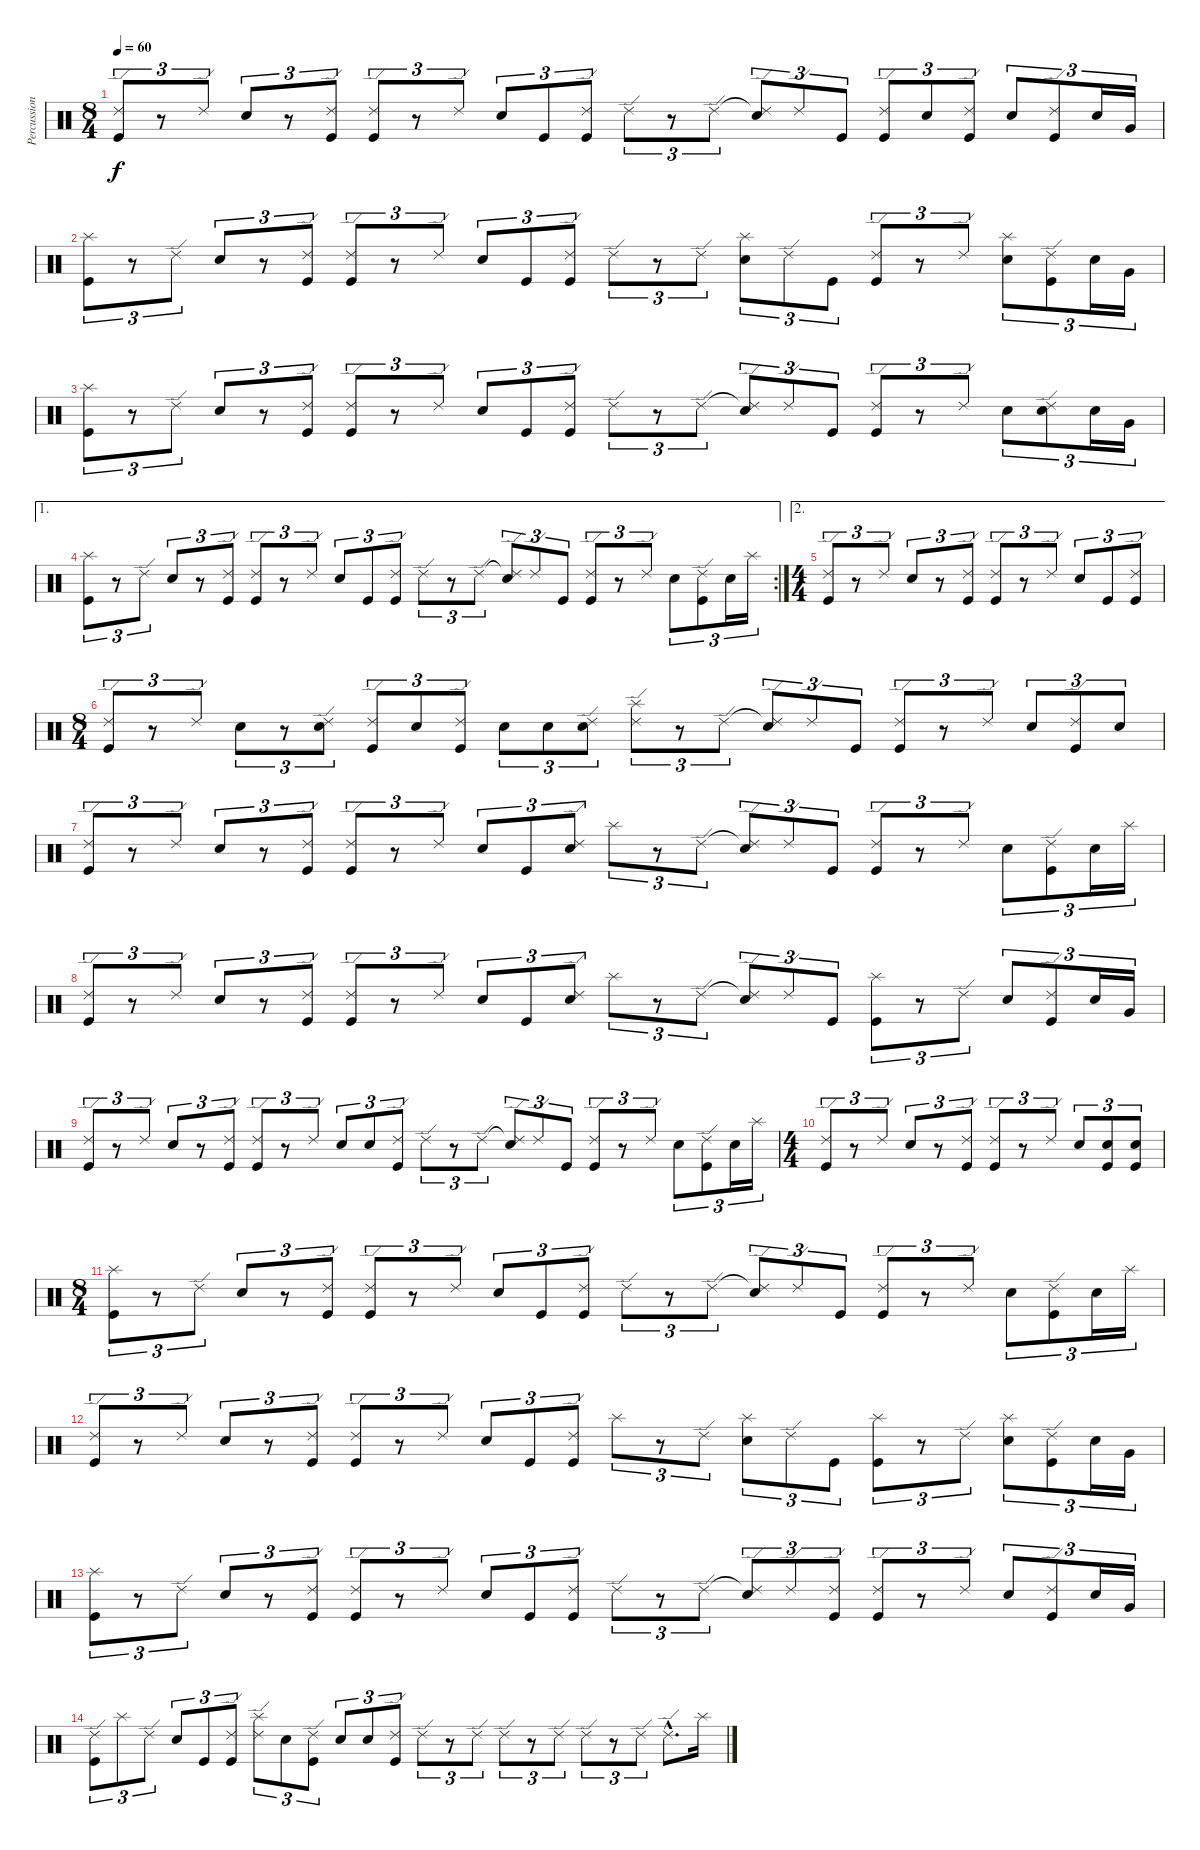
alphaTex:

\track ("Percussion" "Percussion") {instrument percussion}
\staff {score}
\articulation defaults
\ts (8 4)
\tempo 60
\clef neutral
\ks c
("Ride (edge) 2" "Kick (hit)").8{tu (3 2) dy f} r.8{tu (3 2)} "Ride (edge) 2".8{tu (3 2)} "Electric Snare (hit)".8{tu (3 2)} r.8{tu (3 2)} ("Ride (edge) 2" "Kick (hit)").8{tu (3 2)} ("Ride (edge) 2" "Kick (hit)").8{tu (3 2)} r.8{tu (3 2)} "Ride (edge) 2".8{tu (3 2)} "Electric Snare (hit)".8{tu (3 2)} "Kick (hit)".8{tu (3 2)} ("Ride (edge) 2" "Kick (hit)").8{tu (3 2)} "Ride (edge) 2".8{tu (3 2)} r.8{tu (3 2)} "Ride (edge) 2".8{tu (3 2)} ("Ride (edge) 2"{t} "Electric Snare (hit)").8{tu (3 2)} "Ride (edge) 2".8{tu (3 2)} "Kick (hit)".8{tu (3 2)} ("Ride (edge) 2" "Kick (hit)").8{tu (3 2)} "Electric Snare (hit)".8{tu (3 2)} ("Ride (edge) 2" "Kick (hit)").8{tu (3 2)} "Electric Snare (hit)".8{tu (3 2)} ("Ride (edge) 2" "Kick (hit)").8{tu (3 2)} "Electric Snare (hit)".16{tu (3 2)} "Very Low Tom (hit)".16{tu (3 2)} |
("Splash (hit)" "Kick (hit)").8{tu (3 2)} r.8{tu (3 2)} "Ride (edge) 2".8{tu (3 2)} "Electric Snare (hit)".8{tu (3 2)} r.8{tu (3 2)} ("Ride (edge) 2" "Kick (hit)").8{tu (3 2)} ("Ride (edge) 2" "Kick (hit)").8{tu (3 2)} r.8{tu (3 2)} "Ride (edge) 2".8{tu (3 2)} "Electric Snare (hit)".8{tu (3 2)} "Kick (hit)".8{tu (3 2)} ("Ride (edge) 2" "Kick (hit)").8{tu (3 2)} "Ride (edge) 2".8{tu (3 2)} r.8{tu (3 2)} "Ride (edge) 2".8{tu (3 2)} ("Splash (hit)" "Electric Snare (hit)").8{tu (3 2)} "Ride (edge) 2".8{tu (3 2)} "Kick (hit)".8{tu (3 2)} ("Ride (edge) 2" "Kick (hit)").8{tu (3 2)} r.8{tu (3 2)} "Ride (edge) 2".8{tu (3 2)} ("Splash (hit)" "Electric Snare (hit)").8{tu (3 2)} ("Ride (edge) 2" "Kick (hit)").8{tu (3 2)} "Electric Snare (hit)".16{tu (3 2)} "Very Low Tom (hit)".16{tu (3 2)} |
("Splash (hit)" "Kick (hit)").8{tu (3 2)} r.8{tu (3 2)} "Ride (edge) 2".8{tu (3 2)} "Electric Snare (hit)".8{tu (3 2)} r.8{tu (3 2)} ("Ride (edge) 2" "Kick (hit)").8{tu (3 2)} ("Ride (edge) 2" "Kick (hit)").8{tu (3 2)} r.8{tu (3 2)} "Ride (edge) 2".8{tu (3 2)} "Electric Snare (hit)".8{tu (3 2)} "Kick (hit)".8{tu (3 2)} ("Ride (edge) 2" "Kick (hit)").8{tu (3 2)} "Ride (edge) 2".8{tu (3 2)} r.8{tu (3 2)} "Ride (edge) 2".8{tu (3 2)} ("Ride (edge) 2"{t} "Electric Snare (hit)").8{tu (3 2)} "Ride (edge) 2".8{tu (3 2)} "Kick (hit)".8{tu (3 2)} ("Ride (edge) 2" "Kick (hit)").8{tu (3 2)} r.8{tu (3 2)} "Ride (edge) 2".8{tu (3 2)} "Electric Snare (hit)".8{tu (3 2)} ("Ride (edge) 2" "Electric Snare (hit)").8{tu (3 2)} "Electric Snare (hit)".16{tu (3 2)} "Very Low Tom (hit)".16{tu (3 2)} |
\ae 1
\rc 2
("Splash (hit)" "Kick (hit)").8{tu (3 2)} r.8{tu (3 2)} "Ride (edge) 2".8{tu (3 2)} "Electric Snare (hit)".8{tu (3 2)} r.8{tu (3 2)} ("Ride (edge) 2" "Kick (hit)").8{tu (3 2)} ("Ride (edge) 2" "Kick (hit)").8{tu (3 2)} r.8{tu (3 2)} "Ride (edge) 2".8{tu (3 2)} "Electric Snare (hit)".8{tu (3 2)} "Kick (hit)".8{tu (3 2)} ("Ride (edge) 2" "Kick (hit)").8{tu (3 2)} "Ride (edge) 2".8{tu (3 2)} r.8{tu (3 2)} "Ride (edge) 2".8{tu (3 2)} ("Ride (edge) 2"{t} "Electric Snare (hit)").8{tu (3 2)} "Ride (edge) 2".8{tu (3 2)} "Kick (hit)".8{tu (3 2)} ("Ride (edge) 2" "Kick (hit)").8{tu (3 2)} r.8{tu (3 2)} "Ride (edge) 2".8{tu (3 2)} "Electric Snare (hit)".8{tu (3 2)} ("Ride (edge) 2" "Kick (hit)").8{tu (3 2)} "Electric Snare (hit)".16{tu (3 2)} "Splash (hit)".16{tu (3 2)} |
\ae 2
\ts (4 4)
("Ride (edge) 2" "Kick (hit)").8{tu (3 2)} r.8{tu (3 2)} "Ride (edge) 2".8{tu (3 2)} "Electric Snare (hit)".8{tu (3 2)} r.8{tu (3 2)} ("Ride (edge) 2" "Kick (hit)").8{tu (3 2)} ("Ride (edge) 2" "Kick (hit)").8{tu (3 2)} r.8{tu (3 2)} "Ride (edge) 2".8{tu (3 2)} "Electric Snare (hit)".8{tu (3 2)} "Kick (hit)".8{tu (3 2)} ("Ride (edge) 2" "Kick (hit)").8{tu (3 2)} |
\ts (8 4)
("Ride (edge) 2" "Kick (hit)").8{tu (3 2)} r.8{tu (3 2)} "Ride (edge) 2".8{tu (3 2)} "Electric Snare (hit)".8{tu (3 2)} r.8{tu (3 2)} ("Ride (edge) 2" "Electric Snare (hit)").8{tu (3 2)} ("Ride (edge) 2" "Kick (hit)").8{tu (3 2)} "Electric Snare (hit)".8{tu (3 2)} ("Ride (edge) 2" "Kick (hit)").8{tu (3 2)} "Electric Snare (hit)".8{tu (3 2)} "Electric Snare (hit)".8{tu (3 2)} ("Ride (edge) 2" "Electric Snare (hit)").8{tu (3 2)} ("Splash (hit)" "Ride (edge) 2").8{tu (3 2)} r.8{tu (3 2)} "Ride (edge) 2".8{tu (3 2)} ("Ride (edge) 2"{t} "Electric Snare (hit)").8{tu (3 2)} "Ride (edge) 2".8{tu (3 2)} "Kick (hit)".8{tu (3 2)} ("Ride (edge) 2" "Kick (hit)").8{tu (3 2)} r.8{tu (3 2)} "Ride (edge) 2".8{tu (3 2)} "Electric Snare (hit)".8{tu (3 2)} ("Ride (edge) 2" "Kick (hit)").8{tu (3 2)} "Electric Snare (hit)".8{tu (3 2)} |
("Ride (edge) 2" "Kick (hit)").8{tu (3 2)} r.8{tu (3 2)} "Ride (edge) 2".8{tu (3 2)} "Electric Snare (hit)".8{tu (3 2)} r.8{tu (3 2)} ("Ride (edge) 2" "Kick (hit)").8{tu (3 2)} ("Ride (edge) 2" "Kick (hit)").8{tu (3 2)} r.8{tu (3 2)} "Ride (edge) 2".8{tu (3 2)} "Electric Snare (hit)".8{tu (3 2)} "Kick (hit)".8{tu (3 2)} ("Ride (edge) 2" "Electric Snare (hit)").8{tu (3 2)} "Splash (hit)".8{tu (3 2)} r.8{tu (3 2)} "Ride (edge) 2".8{tu (3 2)} ("Ride (edge) 2"{t} "Electric Snare (hit)").8{tu (3 2)} "Ride (edge) 2".8{tu (3 2)} "Kick (hit)".8{tu (3 2)} ("Ride (edge) 2" "Kick (hit)").8{tu (3 2)} r.8{tu (3 2)} "Ride (edge) 2".8{tu (3 2)} "Electric Snare (hit)".8{tu (3 2)} ("Ride (edge) 2" "Kick (hit)").8{tu (3 2)} "Electric Snare (hit)".16{tu (3 2)} "Splash (hit)".16{tu (3 2)} |
("Ride (edge) 2" "Kick (hit)").8{tu (3 2)} r.8{tu (3 2)} "Ride (edge) 2".8{tu (3 2)} "Electric Snare (hit)".8{tu (3 2)} r.8{tu (3 2)} ("Ride (edge) 2" "Kick (hit)").8{tu (3 2)} ("Ride (edge) 2" "Kick (hit)").8{tu (3 2)} r.8{tu (3 2)} "Ride (edge) 2".8{tu (3 2)} "Electric Snare (hit)".8{tu (3 2)} "Kick (hit)".8{tu (3 2)} ("Ride (edge) 2" "Electric Snare (hit)").8{tu (3 2)} "Splash (hit)".8{tu (3 2)} r.8{tu (3 2)} "Ride (edge) 2".8{tu (3 2)} ("Ride (edge) 2"{t} "Electric Snare (hit)").8{tu (3 2)} "Ride (edge) 2".8{tu (3 2)} "Kick (hit)".8{tu (3 2)} ("Splash (hit)" "Kick (hit)").8{tu (3 2)} r.8{tu (3 2)} "Ride (edge) 2".8{tu (3 2)} "Electric Snare (hit)".8{tu (3 2)} ("Ride (edge) 2" "Kick (hit)").8{tu (3 2)} "Electric Snare (hit)".16{tu (3 2)} "Very Low Tom (hit)".16{tu (3 2)} |
("Ride (edge) 2" "Kick (hit)").8{tu (3 2)} r.8{tu (3 2)} "Ride (edge) 2".8{tu (3 2)} "Electric Snare (hit)".8{tu (3 2)} r.8{tu (3 2)} ("Ride (edge) 2" "Kick (hit)").8{tu (3 2)} ("Ride (edge) 2" "Kick (hit)").8{tu (3 2)} r.8{tu (3 2)} "Ride (edge) 2".8{tu (3 2)} "Electric Snare (hit)".8{tu (3 2)} "Electric Snare (hit)".8{tu (3 2)} ("Ride (edge) 2" "Kick (hit)").8{tu (3 2)} "Ride (edge) 2".8{tu (3 2)} r.8{tu (3 2)} "Ride (edge) 2".8{tu (3 2)} ("Ride (edge) 2"{t} "Electric Snare (hit)").8{tu (3 2)} "Ride (edge) 2".8{tu (3 2)} "Kick (hit)".8{tu (3 2)} ("Ride (edge) 2" "Kick (hit)").8{tu (3 2)} r.8{tu (3 2)} "Ride (edge) 2".8{tu (3 2)} "Electric Snare (hit)".8{tu (3 2)} ("Ride (edge) 2" "Kick (hit)").8{tu (3 2)} "Electric Snare (hit)".16{tu (3 2)} "Splash (hit)".16{tu (3 2)} |
\ts (4 4)
("Ride (edge) 2" "Kick (hit)").8{tu (3 2)} r.8{tu (3 2)} "Ride (edge) 2".8{tu (3 2)} "Electric Snare (hit)".8{tu (3 2)} r.8{tu (3 2)} ("Ride (edge) 2" "Kick (hit)").8{tu (3 2)} ("Ride (edge) 2" "Kick (hit)").8{tu (3 2)} r.8{tu (3 2)} "Ride (edge) 2".8{tu (3 2)} "Electric Snare (hit)".8{tu (3 2)} ("Electric Snare (hit)" "Kick (hit)").8{tu (3 2)} ("Electric Snare (hit)" "Kick (hit)").8{tu (3 2)} |
\ts (8 4)
("Splash (hit)" "Kick (hit)").8{tu (3 2)} r.8{tu (3 2)} "Ride (edge) 2".8{tu (3 2)} "Electric Snare (hit)".8{tu (3 2)} r.8{tu (3 2)} ("Ride (edge) 2" "Kick (hit)").8{tu (3 2)} ("Ride (edge) 2" "Kick (hit)").8{tu (3 2)} r.8{tu (3 2)} "Ride (edge) 2".8{tu (3 2)} "Electric Snare (hit)".8{tu (3 2)} "Kick (hit)".8{tu (3 2)} ("Ride (edge) 2" "Kick (hit)").8{tu (3 2)} "Ride (edge) 2".8{tu (3 2)} r.8{tu (3 2)} "Ride (edge) 2".8{tu (3 2)} ("Ride (edge) 2"{t} "Electric Snare (hit)").8{tu (3 2)} "Ride (edge) 2".8{tu (3 2)} "Kick (hit)".8{tu (3 2)} ("Ride (edge) 2" "Kick (hit)").8{tu (3 2)} r.8{tu (3 2)} "Ride (edge) 2".8{tu (3 2)} "Electric Snare (hit)".8{tu (3 2)} ("Ride (edge) 2" "Kick (hit)").8{tu (3 2)} "Electric Snare (hit)".16{tu (3 2)} "Splash (hit)".16{tu (3 2)} |
("Ride (edge) 2" "Kick (hit)").8{tu (3 2)} r.8{tu (3 2)} "Ride (edge) 2".8{tu (3 2)} "Electric Snare (hit)".8{tu (3 2)} r.8{tu (3 2)} ("Ride (edge) 2" "Kick (hit)").8{tu (3 2)} ("Ride (edge) 2" "Kick (hit)").8{tu (3 2)} r.8{tu (3 2)} "Ride (edge) 2".8{tu (3 2)} "Electric Snare (hit)".8{tu (3 2)} "Kick (hit)".8{tu (3 2)} ("Ride (edge) 2" "Kick (hit)").8{tu (3 2)} "Splash (hit)".8{tu (3 2)} r.8{tu (3 2)} "Ride (edge) 2".8{tu (3 2)} ("Splash (hit)" "Electric Snare (hit)").8{tu (3 2)} "Ride (edge) 2".8{tu (3 2)} "Kick (hit)".8{tu (3 2)} ("Splash (hit)" "Kick (hit)").8{tu (3 2)} r.8{tu (3 2)} "Ride (edge) 2".8{tu (3 2)} ("Splash (hit)" "Electric Snare (hit)").8{tu (3 2)} ("Ride (edge) 2" "Kick (hit)").8{tu (3 2)} "Electric Snare (hit)".16{tu (3 2)} "Very Low Tom (hit)".16{tu (3 2)} |
("Splash (hit)" "Kick (hit)").8{tu (3 2)} r.8{tu (3 2)} "Ride (edge) 2".8{tu (3 2)} "Electric Snare (hit)".8{tu (3 2)} r.8{tu (3 2)} ("Ride (edge) 2" "Kick (hit)").8{tu (3 2)} ("Ride (edge) 2" "Kick (hit)").8{tu (3 2)} r.8{tu (3 2)} "Ride (edge) 2".8{tu (3 2)} "Electric Snare (hit)".8{tu (3 2)} "Kick (hit)".8{tu (3 2)} ("Ride (edge) 2" "Kick (hit)").8{tu (3 2)} "Ride (edge) 2".8{tu (3 2)} r.8{tu (3 2)} "Ride (edge) 2".8{tu (3 2)} ("Ride (edge) 2"{t} "Electric Snare (hit)").8{tu (3 2)} "Ride (edge) 2".8{tu (3 2)} ("Ride (edge) 2" "Kick (hit)").8{tu (3 2)} ("Ride (edge) 2" "Kick (hit)").8{tu (3 2)} r.8{tu (3 2)} "Ride (edge) 2".8{tu (3 2)} "Electric Snare (hit)".8{tu (3 2)} ("Ride (edge) 2" "Kick (hit)").8{tu (3 2)} "Electric Snare (hit)".16{tu (3 2)} "Very Low Tom (hit)".16{tu (3 2)} |
("Ride (edge) 2" "Kick (hit)").8{tu (3 2)} "Splash (hit)".8{tu (3 2)} "Ride (edge) 2".8{tu (3 2)} "Electric Snare (hit)".8{tu (3 2)} "Kick (hit)".8{tu (3 2)} ("Ride (edge) 2" "Kick (hit)").8{tu (3 2)} ("Ride (edge) 2" "Splash (hit)").8{tu (3 2)} "Electric Snare (hit)".8{tu (3 2)} ("Ride (edge) 2" "Kick (hit)").8{tu (3 2)} "Electric Snare (hit)".8{tu (3 2)} "Electric Snare (hit)".8{tu (3 2)} ("Ride (edge) 2" "Kick (hit)").8{tu (3 2)} "Ride (edge) 2".8{tu (3 2)} r.8{tu (3 2)} "Ride (edge) 2".8{tu (3 2)} "Ride (edge) 2".8{tu (3 2)} r.8{tu (3 2)} "Ride (edge) 2".8{tu (3 2)} "Ride (edge) 2".8{tu (3 2)} r.8{tu (3 2)} "Ride (edge) 2".8{tu (3 2)} "Ride (edge) 2"{hac}.8{d} "Splash (hit)".16
